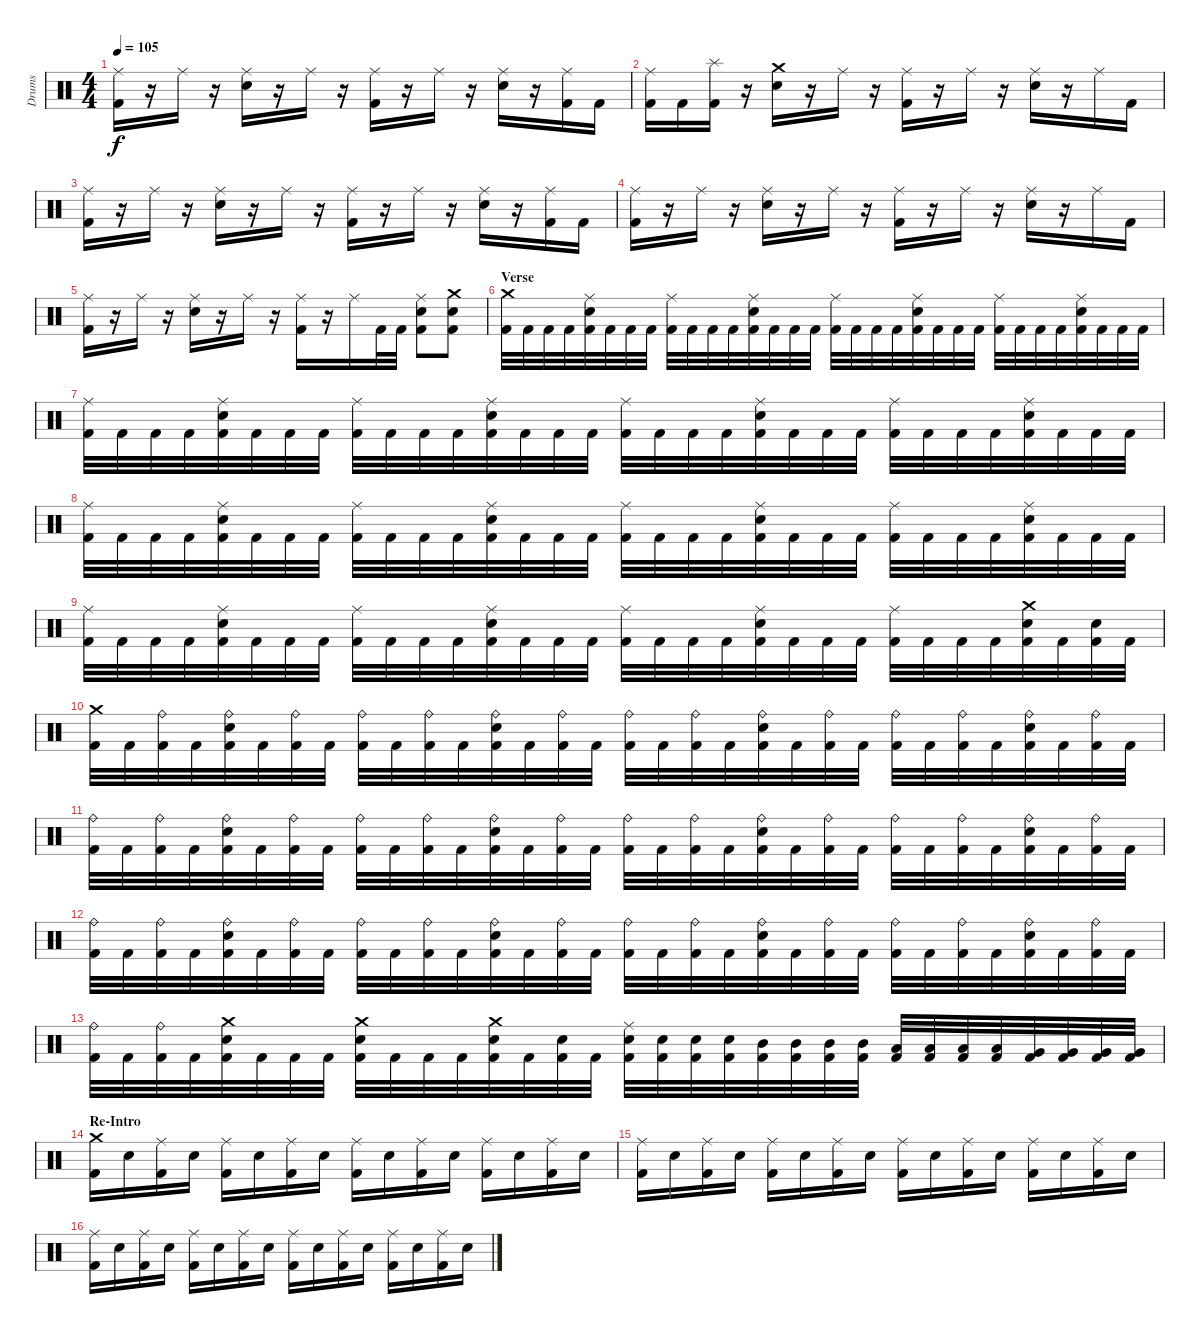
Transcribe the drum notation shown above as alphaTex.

\track ("Drums" "Drums") {instrument percussion}
\staff {score}
\articulation defaults
\ts (4 4)
\tempo 105
\clef neutral
\ks c
("Ride (middle)" "Kick (hit) 2").16{dy f} r.16 "Ride (middle)".16 r.16 ("Ride (middle)" "Electric Snare (hit)").16 r.16 "Ride (middle)".16 r.16 ("Ride (middle)" "Kick (hit) 2").16 r.16 "Ride (middle)".16 r.16 ("Ride (middle)" "Electric Snare (hit)").16 r.16 ("Ride (middle)" "Kick (hit) 2").16 "Kick (hit) 2".16 |
("Ride (middle)" "Kick (hit) 2").16 "Kick (hit) 2".16 ("Splash (hit)" "Kick (hit) 2").16 r.16 ("Crash medium (hit)" "Electric Snare (hit)").16 r.16 "Ride (middle)".16 r.16 ("Ride (middle)" "Kick (hit) 2").16 r.16 "Ride (middle)".16 r.16 ("Ride (middle)" "Electric Snare (hit)").16 r.16 "Ride (middle)".16 "Kick (hit) 2".16 |
("Ride (middle)" "Kick (hit) 2").16 r.16 "Ride (middle)".16 r.16 ("Ride (middle)" "Electric Snare (hit)").16 r.16 "Ride (middle)".16 r.16 ("Ride (middle)" "Kick (hit) 2").16 r.16 "Ride (middle)".16 r.16 ("Ride (middle)" "Electric Snare (hit)").16 r.16 ("Ride (middle)" "Kick (hit) 2").16 "Kick (hit) 2".16 |
("Ride (middle)" "Kick (hit) 2").16 r.16 "Ride (middle)".16 r.16 ("Ride (middle)" "Electric Snare (hit)").16 r.16 "Ride (middle)".16 r.16 ("Ride (middle)" "Kick (hit) 2").16 r.16 "Ride (middle)".16 r.16 ("Ride (middle)" "Electric Snare (hit)").16 r.16 "Ride (middle)".16 "Kick (hit) 2".16 |
("Ride (middle)" "Kick (hit) 2").16 r.16 "Ride (middle)".16 r.16 ("Ride (middle)" "Electric Snare (hit)").16 r.16 "Ride (middle)".16 r.16 ("Ride (middle)" "Kick (hit) 2").16 r.16 "Ride (middle)".16 "Kick (hit) 2".32 "Kick (hit) 2".32 ("Ride (middle)" "Electric Snare (hit)" "Kick (hit) 2").8 ("Crash medium (hit)" "Electric Snare (hit)" "Kick (hit) 2").8 |
\section ("" "Verse")
("Crash medium (hit)" "Kick (hit) 2").32 "Kick (hit) 2".32 "Kick (hit) 2".32 "Kick (hit) 2".32 ("Ride (middle)" "Electric Snare (hit)" "Kick (hit) 2").32 "Kick (hit) 2".32 "Kick (hit) 2".32 "Kick (hit) 2".32 ("Ride (middle)" "Kick (hit) 2").32 "Kick (hit) 2".32 "Kick (hit) 2".32 "Kick (hit) 2".32 ("Ride (middle)" "Electric Snare (hit)" "Kick (hit) 2").32 "Kick (hit) 2".32 "Kick (hit) 2".32 "Kick (hit) 2".32 ("Ride (middle)" "Kick (hit) 2").32 "Kick (hit) 2".32 "Kick (hit) 2".32 "Kick (hit) 2".32 ("Ride (middle)" "Electric Snare (hit)" "Kick (hit) 2").32 "Kick (hit) 2".32 "Kick (hit) 2".32 "Kick (hit) 2".32 ("Ride (middle)" "Kick (hit) 2").32 "Kick (hit) 2".32 "Kick (hit) 2".32 "Kick (hit) 2".32 ("Ride (middle)" "Electric Snare (hit)" "Kick (hit) 2").32 "Kick (hit) 2".32 "Kick (hit) 2".32 "Kick (hit) 2".32 |
("Ride (middle)" "Kick (hit) 2").32 "Kick (hit) 2".32 "Kick (hit) 2".32 "Kick (hit) 2".32 ("Ride (middle)" "Electric Snare (hit)" "Kick (hit) 2").32 "Kick (hit) 2".32 "Kick (hit) 2".32 "Kick (hit) 2".32 ("Ride (middle)" "Kick (hit) 2").32 "Kick (hit) 2".32 "Kick (hit) 2".32 "Kick (hit) 2".32 ("Ride (middle)" "Electric Snare (hit)" "Kick (hit) 2").32 "Kick (hit) 2".32 "Kick (hit) 2".32 "Kick (hit) 2".32 ("Ride (middle)" "Kick (hit) 2").32 "Kick (hit) 2".32 "Kick (hit) 2".32 "Kick (hit) 2".32 ("Ride (middle)" "Electric Snare (hit)" "Kick (hit) 2").32 "Kick (hit) 2".32 "Kick (hit) 2".32 "Kick (hit) 2".32 ("Ride (middle)" "Kick (hit) 2").32 "Kick (hit) 2".32 "Kick (hit) 2".32 "Kick (hit) 2".32 ("Ride (middle)" "Electric Snare (hit)" "Kick (hit) 2").32 "Kick (hit) 2".32 "Kick (hit) 2".32 "Kick (hit) 2".32 |
("Ride (middle)" "Kick (hit) 2").32 "Kick (hit) 2".32 "Kick (hit) 2".32 "Kick (hit) 2".32 ("Ride (middle)" "Electric Snare (hit)" "Kick (hit) 2").32 "Kick (hit) 2".32 "Kick (hit) 2".32 "Kick (hit) 2".32 ("Ride (middle)" "Kick (hit) 2").32 "Kick (hit) 2".32 "Kick (hit) 2".32 "Kick (hit) 2".32 ("Ride (middle)" "Electric Snare (hit)" "Kick (hit) 2").32 "Kick (hit) 2".32 "Kick (hit) 2".32 "Kick (hit) 2".32 ("Ride (middle)" "Kick (hit) 2").32 "Kick (hit) 2".32 "Kick (hit) 2".32 "Kick (hit) 2".32 ("Ride (middle)" "Electric Snare (hit)" "Kick (hit) 2").32 "Kick (hit) 2".32 "Kick (hit) 2".32 "Kick (hit) 2".32 ("Ride (middle)" "Kick (hit) 2").32 "Kick (hit) 2".32 "Kick (hit) 2".32 "Kick (hit) 2".32 ("Ride (middle)" "Electric Snare (hit)" "Kick (hit) 2").32 "Kick (hit) 2".32 "Kick (hit) 2".32 "Kick (hit) 2".32 |
("Ride (middle)" "Kick (hit) 2").32 "Kick (hit) 2".32 "Kick (hit) 2".32 "Kick (hit) 2".32 ("Ride (middle)" "Electric Snare (hit)" "Kick (hit) 2").32 "Kick (hit) 2".32 "Kick (hit) 2".32 "Kick (hit) 2".32 ("Ride (middle)" "Kick (hit) 2").32 "Kick (hit) 2".32 "Kick (hit) 2".32 "Kick (hit) 2".32 ("Ride (middle)" "Electric Snare (hit)" "Kick (hit) 2").32 "Kick (hit) 2".32 "Kick (hit) 2".32 "Kick (hit) 2".32 ("Ride (middle)" "Kick (hit) 2").32 "Kick (hit) 2".32 "Kick (hit) 2".32 "Kick (hit) 2".32 ("Ride (middle)" "Electric Snare (hit)" "Kick (hit) 2").32 "Kick (hit) 2".32 "Kick (hit) 2".32 "Kick (hit) 2".32 ("Ride (middle)" "Kick (hit) 2").32 "Kick (hit) 2".32 "Kick (hit) 2".32 "Kick (hit) 2".32 ("Crash medium (hit)" "Electric Snare (hit)" "Kick (hit) 2").32 "Kick (hit) 2".32 ("Electric Snare (hit)" "Kick (hit) 2").32 "Kick (hit) 2".32 |
("Crash medium (hit)" "Kick (hit) 2").32 "Kick (hit) 2".32 ("Ride (bell)" "Kick (hit) 2").32 "Kick (hit) 2".32 ("Ride (bell)" "Electric Snare (hit)" "Kick (hit) 2").32 "Kick (hit) 2".32 ("Ride (bell)" "Kick (hit) 2").32 "Kick (hit) 2".32 ("Ride (bell)" "Kick (hit) 2").32 "Kick (hit) 2".32 ("Ride (bell)" "Kick (hit) 2").32 "Kick (hit) 2".32 ("Ride (bell)" "Electric Snare (hit)" "Kick (hit) 2").32 "Kick (hit) 2".32 ("Ride (bell)" "Kick (hit) 2").32 "Kick (hit) 2".32 ("Ride (bell)" "Kick (hit) 2").32 "Kick (hit) 2".32 ("Ride (bell)" "Kick (hit) 2").32 "Kick (hit) 2".32 ("Ride (bell)" "Electric Snare (hit)" "Kick (hit) 2").32 "Kick (hit) 2".32 ("Ride (bell)" "Kick (hit) 2").32 "Kick (hit) 2".32 ("Ride (bell)" "Kick (hit) 2").32 "Kick (hit) 2".32 ("Ride (bell)" "Kick (hit) 2").32 "Kick (hit) 2".32 ("Ride (bell)" "Electric Snare (hit)" "Kick (hit) 2").32 "Kick (hit) 2".32 ("Ride (bell)" "Kick (hit) 2").32 "Kick (hit) 2".32 |
("Ride (bell)" "Kick (hit) 2").32 "Kick (hit) 2".32 ("Ride (bell)" "Kick (hit) 2").32 "Kick (hit) 2".32 ("Ride (bell)" "Electric Snare (hit)" "Kick (hit) 2").32 "Kick (hit) 2".32 ("Ride (bell)" "Kick (hit) 2").32 "Kick (hit) 2".32 ("Ride (bell)" "Kick (hit) 2").32 "Kick (hit) 2".32 ("Ride (bell)" "Kick (hit) 2").32 "Kick (hit) 2".32 ("Ride (bell)" "Electric Snare (hit)" "Kick (hit) 2").32 "Kick (hit) 2".32 ("Ride (bell)" "Kick (hit) 2").32 "Kick (hit) 2".32 ("Ride (bell)" "Kick (hit) 2").32 "Kick (hit) 2".32 ("Ride (bell)" "Kick (hit) 2").32 "Kick (hit) 2".32 ("Ride (bell)" "Electric Snare (hit)" "Kick (hit) 2").32 "Kick (hit) 2".32 ("Ride (bell)" "Kick (hit) 2").32 "Kick (hit) 2".32 ("Ride (bell)" "Kick (hit) 2").32 "Kick (hit) 2".32 ("Ride (bell)" "Kick (hit) 2").32 "Kick (hit) 2".32 ("Ride (bell)" "Electric Snare (hit)" "Kick (hit) 2").32 "Kick (hit) 2".32 ("Ride (bell)" "Kick (hit) 2").32 "Kick (hit) 2".32 |
("Ride (bell)" "Kick (hit) 2").32 "Kick (hit) 2".32 ("Ride (bell)" "Kick (hit) 2").32 "Kick (hit) 2".32 ("Ride (bell)" "Electric Snare (hit)" "Kick (hit) 2").32 "Kick (hit) 2".32 ("Ride (bell)" "Kick (hit) 2").32 "Kick (hit) 2".32 ("Ride (bell)" "Kick (hit) 2").32 "Kick (hit) 2".32 ("Ride (bell)" "Kick (hit) 2").32 "Kick (hit) 2".32 ("Ride (bell)" "Electric Snare (hit)" "Kick (hit) 2").32 "Kick (hit) 2".32 ("Ride (bell)" "Kick (hit) 2").32 "Kick (hit) 2".32 ("Ride (bell)" "Kick (hit) 2").32 "Kick (hit) 2".32 ("Ride (bell)" "Kick (hit) 2").32 "Kick (hit) 2".32 ("Ride (bell)" "Electric Snare (hit)" "Kick (hit) 2").32 "Kick (hit) 2".32 ("Ride (bell)" "Kick (hit) 2").32 "Kick (hit) 2".32 ("Ride (bell)" "Kick (hit) 2").32 "Kick (hit) 2".32 ("Ride (bell)" "Kick (hit) 2").32 "Kick (hit) 2".32 ("Ride (bell)" "Electric Snare (hit)" "Kick (hit) 2").32 "Kick (hit) 2".32 ("Ride (bell)" "Kick (hit) 2").32 "Kick (hit) 2".32 |
("Ride (bell)" "Kick (hit) 2").32 "Kick (hit) 2".32 ("Ride (bell)" "Kick (hit) 2").32 "Kick (hit) 2".32 ("Crash medium (hit)" "Electric Snare (hit)" "Kick (hit) 2").32 "Kick (hit) 2".32 "Kick (hit) 2".32 "Kick (hit) 2".32 ("Crash medium (hit)" "Electric Snare (hit)" "Kick (hit) 2").32 "Kick (hit) 2".32 "Kick (hit) 2".32 "Kick (hit) 2".32 ("Crash medium (hit)" "Electric Snare (hit)" "Kick (hit) 2").32 "Kick (hit) 2".32 ("Electric Snare (hit)" "Kick (hit) 2").32 "Kick (hit) 2".32 ("Ride (middle)" "Electric Snare (hit)" "Kick (hit) 2").32 ("Electric Snare (hit)" "Kick (hit) 2").32 ("Electric Snare (hit)" "Kick (hit) 2").32 ("Electric Snare (hit)" "Kick (hit) 2").32 ("Mid Tom (hit)" "Kick (hit) 2").32 ("Mid Tom (hit)" "Kick (hit) 2").32 ("Mid Tom (hit)" "Kick (hit) 2").32 ("Mid Tom (hit)" "Kick (hit) 2").32 ("Low Tom (hit)" "Kick (hit) 2").32 ("Low Tom (hit)" "Kick (hit) 2").32 ("Low Tom (hit)" "Kick (hit) 2").32 ("Low Tom (hit)" "Kick (hit) 2").32 ("Very Low Tom (hit)" "Kick (hit) 2").32 ("Very Low Tom (hit)" "Kick (hit) 2").32 ("Very Low Tom (hit)" "Kick (hit) 2").32 ("Very Low Tom (hit)" "Kick (hit) 2").32 |
\section ("" "Re-Intro")
("Crash medium (hit)" "Kick (hit) 2").16 "Electric Snare (hit)".16 ("Ride (middle)" "Kick (hit) 2").16 "Electric Snare (hit)".16 ("Ride (middle)" "Kick (hit) 2").16 "Electric Snare (hit)".16 ("Ride (middle)" "Kick (hit) 2").16 "Electric Snare (hit)".16 ("Ride (middle)" "Kick (hit) 2").16 "Electric Snare (hit)".16 ("Ride (middle)" "Kick (hit) 2").16 "Electric Snare (hit)".16 ("Ride (middle)" "Kick (hit) 2").16 "Electric Snare (hit)".16 ("Ride (middle)" "Kick (hit) 2").16 "Electric Snare (hit)".16 |
("Ride (middle)" "Kick (hit) 2").16 "Electric Snare (hit)".16 ("Ride (middle)" "Kick (hit) 2").16 "Electric Snare (hit)".16 ("Ride (middle)" "Kick (hit) 2").16 "Electric Snare (hit)".16 ("Ride (middle)" "Kick (hit) 2").16 "Electric Snare (hit)".16 ("Ride (middle)" "Kick (hit) 2").16 "Electric Snare (hit)".16 ("Ride (middle)" "Kick (hit) 2").16 "Electric Snare (hit)".16 ("Ride (middle)" "Kick (hit) 2").16 "Electric Snare (hit)".16 ("Ride (middle)" "Kick (hit) 2").16 "Electric Snare (hit)".16 |
("Ride (middle)" "Kick (hit) 2").16 "Electric Snare (hit)".16 ("Ride (middle)" "Kick (hit) 2").16 "Electric Snare (hit)".16 ("Ride (middle)" "Kick (hit) 2").16 "Electric Snare (hit)".16 ("Ride (middle)" "Kick (hit) 2").16 "Electric Snare (hit)".16 ("Ride (middle)" "Kick (hit) 2").16 "Electric Snare (hit)".16 ("Ride (middle)" "Kick (hit) 2").16 "Electric Snare (hit)".16 ("Ride (middle)" "Kick (hit) 2").16 "Electric Snare (hit)".16 ("Ride (middle)" "Kick (hit) 2").16 "Electric Snare (hit)".16
